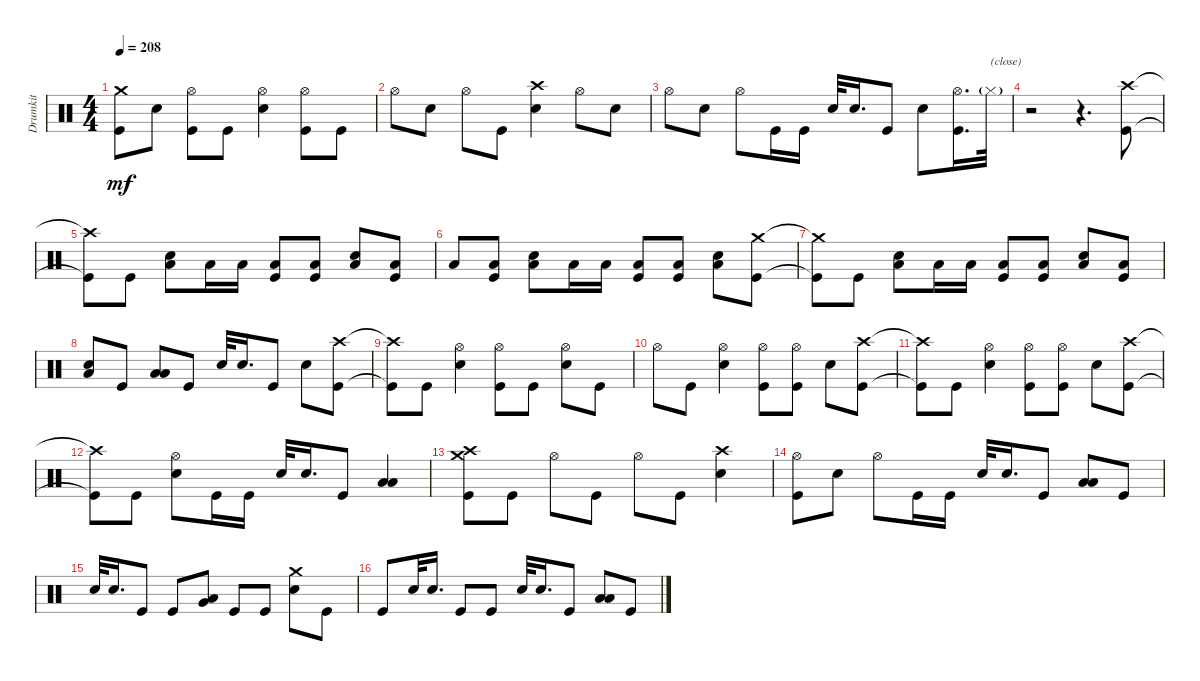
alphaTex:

\track ("Drumkit" "Drumkit") {instrument percussion}
\staff {score}
\articulation defaults
\ts (4 4)
\tempo 208
\clef neutral
\ks c
("Kick (hit)"{t} "Crash medium (hit)"{t}).8{dy mf} "Snare (hit) 2".8 ("Kick (hit)" "Hi-Hat (open)").8 "Kick (hit)".8 ("Snare (hit) 2" "Hi-Hat (open)").4 ("Kick (hit)" "Hi-Hat (open)").8 "Kick (hit)".8 |
"Hi-Hat (open)".8 "Snare (hit) 2".8 "Hi-Hat (open)".8 "Kick (hit)".8 ("Snare (hit) 2" "Crash high (hit)").4 "Hi-Hat (open)".8 "Snare (hit) 2".8 |
"Hi-Hat (open)".8 "Snare (hit) 2".8 "Hi-Hat (open)".8 "Kick (hit)".16 "Kick (hit)".16 "Snare (hit) 2".32 "Snare (hit) 2".16{d} "Kick (hit)".8 "Snare (hit) 2".8 ("Hi-Hat (open)" "Kick (hit)").16{d} "Hi-Hat (closed)"{g}.32{txt "(close)"} |
r.2 r.4{d} ("Kick (hit)" "Crash high (hit)").8 |
("Kick (hit)"{t} "Crash high (hit)"{t}).8 "Kick (hit)".8 ("Snare (hit) 2" "Low Floor Tom (hit)").8 "Low Floor Tom (hit)".16 "Low Tom (hit)".16 ("Low Floor Tom (hit)" "Kick (hit)").8 ("Low Floor Tom (hit)" "Kick (hit)").8 ("Low Floor Tom (hit)" "Snare (hit) 2").8 ("Low Floor Tom (hit)" "Kick (hit)").8 |
"Low Floor Tom (hit)".8 ("Low Floor Tom (hit)" "Kick (hit)").8 ("Low Floor Tom (hit)" "Snare (hit) 2").8 "Low Floor Tom (hit)".16 "Low Tom (hit)".16 ("Low Floor Tom (hit)" "Kick (hit)").8 ("Low Floor Tom (hit)" "Kick (hit)").8 ("Low Floor Tom (hit)" "Snare (hit) 2").8 ("Kick (hit)" "Crash medium (hit)").8 |
("Kick (hit)"{t} "Crash medium (hit)"{t}).8 "Kick (hit)".8 ("Snare (hit) 2" "Low Floor Tom (hit)").8 "Low Floor Tom (hit)".16 "Low Tom (hit)".16 ("Low Floor Tom (hit)" "Kick (hit)").8 ("Low Floor Tom (hit)" "Kick (hit)").8 ("Low Floor Tom (hit)" "Snare (hit) 2").8 ("Low Floor Tom (hit)" "Kick (hit)").8 |
("Low Floor Tom (hit)" "Snare (hit) 2").8 "Kick (hit)".8 ("Low Floor Tom (hit)" "Low Tom (hit)").8 "Kick (hit)".8 "Snare (hit) 2".32 "Snare (hit) 2".16{d} "Kick (hit)".8 "Snare (hit) 2".8 ("Kick (hit)" "Crash high (hit)").8 |
("Kick (hit)"{t} "Crash high (hit)"{t}).8 "Kick (hit)".8 ("Snare (hit) 2" "Hi-Hat (open)").4 ("Kick (hit)" "Hi-Hat (open)").8 "Kick (hit)".8 ("Snare (hit) 2" "Hi-Hat (open)").8 "Kick (hit)".8 |
"Hi-Hat (open)".8 "Kick (hit)".8 ("Snare (hit) 2" "Hi-Hat (open)").4 ("Kick (hit)" "Hi-Hat (open)").8 ("Kick (hit)" "Hi-Hat (open)").8 "Snare (hit) 2".8 ("Kick (hit)" "Crash high (hit)").8 |
("Kick (hit)"{t} "Crash high (hit)"{t}).8 "Kick (hit)".8 ("Snare (hit) 2" "Hi-Hat (open)").4 ("Kick (hit)" "Hi-Hat (open)").8 ("Kick (hit)" "Hi-Hat (open)").8 "Snare (hit) 2".8 ("Kick (hit)" "Crash high (hit)").8 |
("Kick (hit)"{t} "Crash high (hit)"{t}).8 "Kick (hit)".8 ("Snare (hit) 2" "Hi-Hat (open)").8 "Kick (hit)".16 "Kick (hit)".16 "Snare (hit) 2".32 "Snare (hit) 2".16{d} "Kick (hit)".8 ("Low Floor Tom (hit)" "Low Tom (hit)").4 |
("Kick (hit)" "Crash high (hit)" "Crash medium (hit)").8 "Kick (hit)".8 "Hi-Hat (open)".8 "Kick (hit)".8 "Hi-Hat (open)".8 "Kick (hit)".8 ("Snare (hit) 2" "Crash high (hit)").4 |
("Kick (hit)" "Hi-Hat (open)").8 "Snare (hit) 2".8 "Hi-Hat (open)".8 "Kick (hit)".16 "Kick (hit)".16 "Snare (hit) 2".32 "Snare (hit) 2".16{d} "Kick (hit)".8 ("Low Floor Tom (hit)" "Low Tom (hit)").8 "Kick (hit)".8 |
"Snare (hit) 2".32 "Snare (hit) 2".16{d} "Kick (hit)".8 "Kick (hit)".8 ("Very Low Tom (hit)" "Low Tom (hit)").8 "Kick (hit)".8 "Kick (hit)".8 ("Snare (hit) 2" "Crash medium (hit)").8 "Kick (hit)".8 |
"Kick (hit)".8 "Snare (hit) 2".32 "Snare (hit) 2".16{d} "Kick (hit)".8 "Kick (hit)".8 "Snare (hit) 2".32 "Snare (hit) 2".16{d} "Kick (hit)".8 ("Low Floor Tom (hit)" "Low Tom (hit)").8 "Kick (hit)".8
